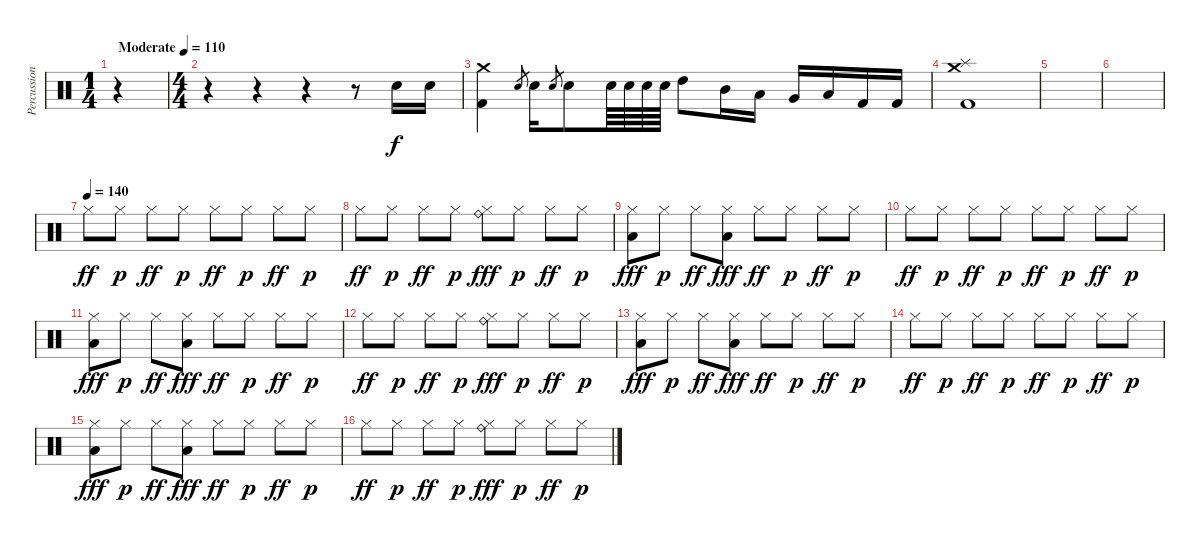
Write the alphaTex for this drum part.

\track ("Percussion" "Percussion") {instrument percussion}
\staff {score}
\articulation defaults
\ts (1 4)
\tempo (110 "Moderate")
\clef neutral
\ks c
r.4{dy f} |
\ts (4 4)
r.4 r.4 r.4 r.8 "Electric Snare (hit)".16 "Electric Snare (hit)".16 |
("Crash medium (hit)" "Kick (hit) 2").4 "Electric Snare (hit)".8{gr} "Electric Snare (hit)".16 "Electric Snare (hit)".8{gr} "Electric Snare (hit)".8 "Electric Snare (hit)".64 "Electric Snare (hit)".64 "Electric Snare (hit)".64 "Electric Snare (hit)".64 "High Tom (hit)".8 "Mid Tom (hit)".16 "Low Tom (hit)".16 "Very Low Tom (hit)".16 "Low Floor Tom (hit)".16 "Kick (hit) 2".16 "Kick (hit) 2".16 |
("Crash medium (hit)" "Splash (hit)" "Kick (hit) 2").1 |
|
|
\tempo (140)
"Hi-Hat (closed)".8{dy ff} "Hi-Hat (closed)".8{dy p} "Hi-Hat (closed)".8{dy ff} "Hi-Hat (closed)".8{dy p} "Hi-Hat (closed)".8{dy ff} "Hi-Hat (closed)".8{dy p} "Hi-Hat (closed)".8{dy ff} "Hi-Hat (closed)".8{dy p} |
"Hi-Hat (closed)".8{dy ff} "Hi-Hat (closed)".8{dy p} "Hi-Hat (closed)".8{dy ff} "Hi-Hat (closed)".8{dy p} ("Hi-Hat (closed)" "Ride (bell)").8{dy fff} "Hi-Hat (closed)".8{dy p} "Hi-Hat (closed)".8{dy ff} "Hi-Hat (closed)".8{dy p} |
("Hi-Hat (closed)" "Low Floor Tom (hit)").8{dy fff} "Hi-Hat (closed)".8{dy p} "Hi-Hat (closed)".8{dy ff} ("Hi-Hat (closed)" "Low Floor Tom (hit)").8{dy fff} "Hi-Hat (closed)".8{dy ff} "Hi-Hat (closed)".8{dy p} "Hi-Hat (closed)".8{dy ff} "Hi-Hat (closed)".8{dy p} |
"Hi-Hat (closed)".8{dy ff} "Hi-Hat (closed)".8{dy p} "Hi-Hat (closed)".8{dy ff} "Hi-Hat (closed)".8{dy p} "Hi-Hat (closed)".8{dy ff} "Hi-Hat (closed)".8{dy p} "Hi-Hat (closed)".8{dy ff} "Hi-Hat (closed)".8{dy p} |
("Hi-Hat (closed)" "Low Floor Tom (hit)").8{dy fff} "Hi-Hat (closed)".8{dy p} "Hi-Hat (closed)".8{dy ff} ("Hi-Hat (closed)" "Low Floor Tom (hit)").8{dy fff} "Hi-Hat (closed)".8{dy ff} "Hi-Hat (closed)".8{dy p} "Hi-Hat (closed)".8{dy ff} "Hi-Hat (closed)".8{dy p} |
"Hi-Hat (closed)".8{dy ff} "Hi-Hat (closed)".8{dy p} "Hi-Hat (closed)".8{dy ff} "Hi-Hat (closed)".8{dy p} ("Hi-Hat (closed)" "Ride (bell)").8{dy fff} "Hi-Hat (closed)".8{dy p} "Hi-Hat (closed)".8{dy ff} "Hi-Hat (closed)".8{dy p} |
("Hi-Hat (closed)" "Low Floor Tom (hit)").8{dy fff} "Hi-Hat (closed)".8{dy p} "Hi-Hat (closed)".8{dy ff} ("Hi-Hat (closed)" "Low Floor Tom (hit)").8{dy fff} "Hi-Hat (closed)".8{dy ff} "Hi-Hat (closed)".8{dy p} "Hi-Hat (closed)".8{dy ff} "Hi-Hat (closed)".8{dy p} |
"Hi-Hat (closed)".8{dy ff} "Hi-Hat (closed)".8{dy p} "Hi-Hat (closed)".8{dy ff} "Hi-Hat (closed)".8{dy p} "Hi-Hat (closed)".8{dy ff} "Hi-Hat (closed)".8{dy p} "Hi-Hat (closed)".8{dy ff} "Hi-Hat (closed)".8{dy p} |
("Hi-Hat (closed)" "Low Floor Tom (hit)").8{dy fff} "Hi-Hat (closed)".8{dy p} "Hi-Hat (closed)".8{dy ff} ("Hi-Hat (closed)" "Low Floor Tom (hit)").8{dy fff} "Hi-Hat (closed)".8{dy ff} "Hi-Hat (closed)".8{dy p} "Hi-Hat (closed)".8{dy ff} "Hi-Hat (closed)".8{dy p} |
"Hi-Hat (closed)".8{dy ff} "Hi-Hat (closed)".8{dy p} "Hi-Hat (closed)".8{dy ff} "Hi-Hat (closed)".8{dy p} ("Hi-Hat (closed)" "Ride (bell)").8{dy fff} "Hi-Hat (closed)".8{dy p} "Hi-Hat (closed)".8{dy ff} "Hi-Hat (closed)".8{dy p}
